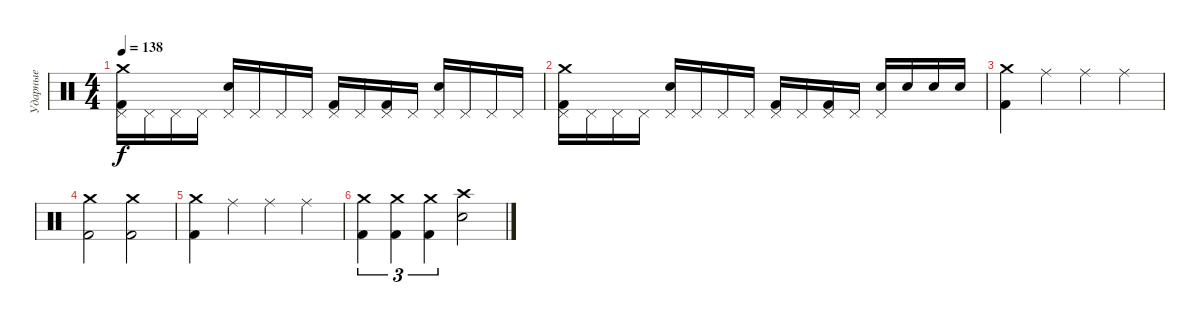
\track ("Ударные" "Ударные") {instrument percussion}
\staff {score}
\articulation defaults
\ts (4 4)
\tempo 138
\clef neutral
\ks c
("Crash medium (hit)" "Pedal Hi-Hat (hit)" "Kick (hit) 2").16{dy f} "Pedal Hi-Hat (hit)".16 "Pedal Hi-Hat (hit)".16 "Pedal Hi-Hat (hit)".16 ("Pedal Hi-Hat (hit)" "Electric Snare (hit)").16 "Pedal Hi-Hat (hit)".16 "Pedal Hi-Hat (hit)".16 "Pedal Hi-Hat (hit)".16 ("Pedal Hi-Hat (hit)" "Kick (hit) 2").16 "Pedal Hi-Hat (hit)".16 ("Pedal Hi-Hat (hit)" "Kick (hit) 2").16 "Pedal Hi-Hat (hit)".16 ("Pedal Hi-Hat (hit)" "Electric Snare (hit)").16 "Pedal Hi-Hat (hit)".16 "Pedal Hi-Hat (hit)".16 "Pedal Hi-Hat (hit)".16 |
("Crash medium (hit)" "Pedal Hi-Hat (hit)" "Kick (hit) 2").16 "Pedal Hi-Hat (hit)".16 "Pedal Hi-Hat (hit)".16 "Pedal Hi-Hat (hit)".16 ("Pedal Hi-Hat (hit)" "Electric Snare (hit)").16 "Pedal Hi-Hat (hit)".16 "Pedal Hi-Hat (hit)".16 "Pedal Hi-Hat (hit)".16 ("Pedal Hi-Hat (hit)" "Kick (hit) 2").16 "Pedal Hi-Hat (hit)".16 ("Pedal Hi-Hat (hit)" "Kick (hit) 2").16 "Pedal Hi-Hat (hit)".16 ("Pedal Hi-Hat (hit)" "Electric Snare (hit)").16 "Electric Snare (hit)".16 "Electric Snare (hit)".16 "Electric Snare (hit)".16 |
("Crash medium (hit)" "Kick (hit) 2").4 "Ride (middle)".4 "Ride (middle)".4 "Ride (middle)".4 |
("Crash medium (hit)" "Kick (hit) 2").2 ("Crash medium (hit)" "Kick (hit) 2").2 |
("Crash medium (hit)" "Kick (hit) 2").4 "Ride (middle)".4 "Ride (middle)".4 "Ride (middle)".4 |
("Crash medium (hit)" "Kick (hit) 2").4{tu (3 2)} ("Crash medium (hit)" "Kick (hit) 2").4{tu (3 2)} ("Crash medium (hit)" "Kick (hit) 2").4{tu (3 2)} ("Crash high (hit)" "Electric Snare (hit)").2
